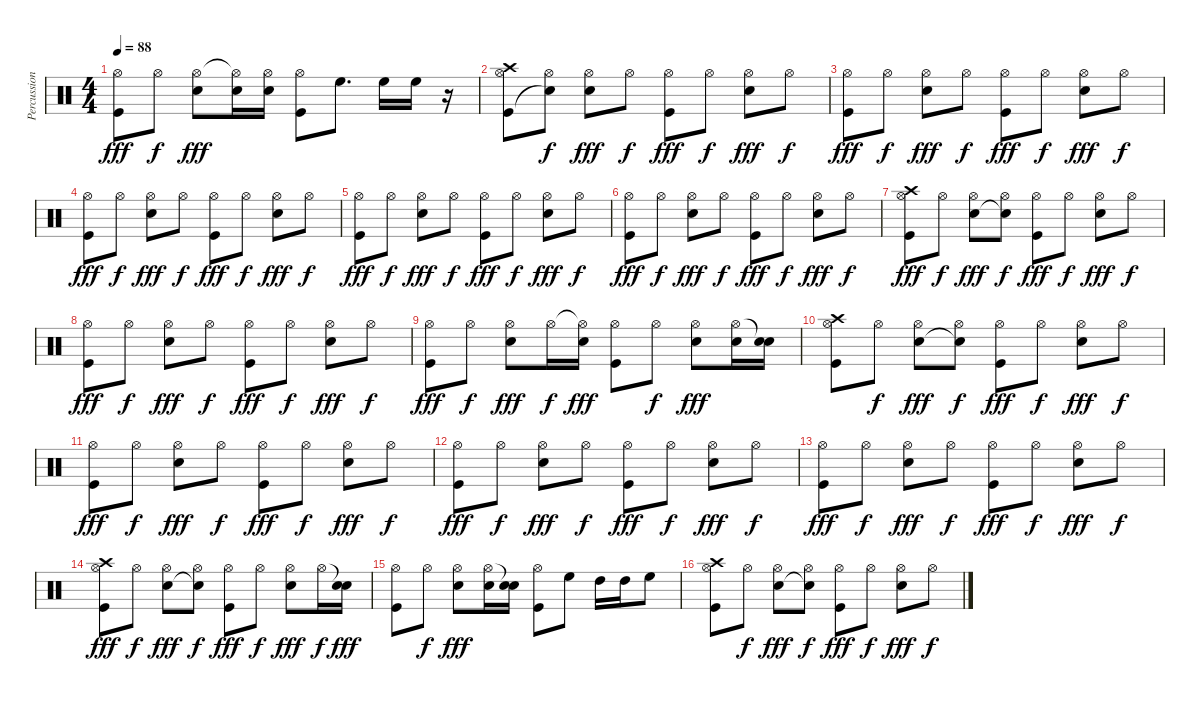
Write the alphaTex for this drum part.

\track ("Percussions" "Percussion") {instrument percussion}
\staff {score}
\articulation defaults
\ts (4 4)
\tempo 88
\clef neutral
\ks c
("Hi-Hat (open)" "Kick (hit)").8{dy fff} "Hi-Hat (open)".8{dy f} ("Hi-Hat (open)" "Snare (hit) 2").8{dy fff} ("Hi-Hat (open)"{t} "Snare (hit) 2").16 ("Hi-Hat (open)" "Snare (hit) 2").16 ("Hi-Hat (open)" "Kick (hit)").8 "High Floor Tom (hit)".8{d} "High Floor Tom (hit)".16 "High Floor Tom (hit)".16 r.16 |
("Hi-Hat (open)" "Kick (hit)" "Crash high (hit)").8 ("Hi-Hat (open)" "Snare (hit)"{t}).8{dy f} ("Hi-Hat (open)" "Snare (hit) 2").8{dy fff} "Hi-Hat (open)".8{dy f} ("Hi-Hat (open)" "Kick (hit)").8{dy fff} "Hi-Hat (open)".8{dy f} ("Hi-Hat (open)" "Snare (hit) 2").8{dy fff} "Hi-Hat (open)".8{dy f} |
("Hi-Hat (open)" "Kick (hit)").8{dy fff} "Hi-Hat (open)".8{dy f} ("Hi-Hat (open)" "Snare (hit) 2").8{dy fff} "Hi-Hat (open)".8{dy f} ("Hi-Hat (open)" "Kick (hit)").8{dy fff} "Hi-Hat (open)".8{dy f} ("Hi-Hat (open)" "Snare (hit) 2").8{dy fff} "Hi-Hat (open)".8{dy f} |
("Hi-Hat (open)" "Kick (hit)").8{dy fff} "Hi-Hat (open)".8{dy f} ("Hi-Hat (open)" "Snare (hit) 2").8{dy fff} "Hi-Hat (open)".8{dy f} ("Hi-Hat (open)" "Kick (hit)").8{dy fff} "Hi-Hat (open)".8{dy f} ("Hi-Hat (open)" "Snare (hit) 2").8{dy fff} "Hi-Hat (open)".8{dy f} |
("Hi-Hat (open)" "Kick (hit)").8{dy fff} "Hi-Hat (open)".8{dy f} ("Hi-Hat (open)" "Snare (hit) 2").8{dy fff} "Hi-Hat (open)".8{dy f} ("Hi-Hat (open)" "Kick (hit)").8{dy fff} "Hi-Hat (open)".8{dy f} ("Hi-Hat (open)" "Snare (hit) 2").8{dy fff} "Hi-Hat (open)".8{dy f} |
("Hi-Hat (open)" "Kick (hit)").8{dy fff} "Hi-Hat (open)".8{dy f} ("Hi-Hat (open)" "Snare (hit) 2").8{dy fff} "Hi-Hat (open)".8{dy f} ("Hi-Hat (open)" "Kick (hit)").8{dy fff} "Hi-Hat (open)".8{dy f} ("Hi-Hat (open)" "Snare (hit) 2").8{dy fff} "Hi-Hat (open)".8{dy f} |
("Hi-Hat (open)" "Kick (hit)" "Crash high (hit)").8{dy fff} "Hi-Hat (open)".8{dy f} ("Hi-Hat (open)" "Snare (hit) 2").8{dy fff} ("Hi-Hat (open)" "Snare (hit)"{t}).8{dy f} ("Hi-Hat (open)" "Kick (hit)").8{dy fff} "Hi-Hat (open)".8{dy f} ("Hi-Hat (open)" "Snare (hit) 2").8{dy fff} "Hi-Hat (open)".8{dy f} |
("Hi-Hat (open)" "Kick (hit)").8{dy fff} "Hi-Hat (open)".8{dy f} ("Hi-Hat (open)" "Snare (hit) 2").8{dy fff} "Hi-Hat (open)".8{dy f} ("Hi-Hat (open)" "Kick (hit)").8{dy fff} "Hi-Hat (open)".8{dy f} ("Hi-Hat (open)" "Snare (hit) 2").8{dy fff} "Hi-Hat (open)".8{dy f} |
("Hi-Hat (open)" "Kick (hit)").8{dy fff} "Hi-Hat (open)".8{dy f} ("Hi-Hat (open)" "Snare (hit) 2").8{dy fff} "Hi-Hat (open)".16{dy f} ("Hi-Hat (open)"{t} "Snare (hit) 2").16{dy fff} ("Hi-Hat (open)" "Kick (hit)").8 "Hi-Hat (open)".8{dy f} ("Hi-Hat (open)" "Snare (hit) 2").8{dy fff} ("Hi-Hat (open)" "Snare (hit) 2").16 ("Snare (hit)"{t} "Snare (hit) 2").16 |
("Hi-Hat (open)" "Kick (hit)" "Crash high (hit)").8 "Hi-Hat (open)".8{dy f} ("Hi-Hat (open)" "Snare (hit) 2").8{dy fff} ("Hi-Hat (open)" "Snare (hit)"{t}).8{dy f} ("Hi-Hat (open)" "Kick (hit)").8{dy fff} "Hi-Hat (open)".8{dy f} ("Hi-Hat (open)" "Snare (hit) 2").8{dy fff} "Hi-Hat (open)".8{dy f} |
("Hi-Hat (open)" "Kick (hit)").8{dy fff} "Hi-Hat (open)".8{dy f} ("Hi-Hat (open)" "Snare (hit) 2").8{dy fff} "Hi-Hat (open)".8{dy f} ("Hi-Hat (open)" "Kick (hit)").8{dy fff} "Hi-Hat (open)".8{dy f} ("Hi-Hat (open)" "Snare (hit) 2").8{dy fff} "Hi-Hat (open)".8{dy f} |
("Hi-Hat (open)" "Kick (hit)").8{dy fff} "Hi-Hat (open)".8{dy f} ("Hi-Hat (open)" "Snare (hit) 2").8{dy fff} "Hi-Hat (open)".8{dy f} ("Hi-Hat (open)" "Kick (hit)").8{dy fff} "Hi-Hat (open)".8{dy f} ("Hi-Hat (open)" "Snare (hit) 2").8{dy fff} "Hi-Hat (open)".8{dy f} |
("Hi-Hat (open)" "Kick (hit)").8{dy fff} "Hi-Hat (open)".8{dy f} ("Hi-Hat (open)" "Snare (hit) 2").8{dy fff} "Hi-Hat (open)".8{dy f} ("Hi-Hat (open)" "Kick (hit)").8{dy fff} "Hi-Hat (open)".8{dy f} ("Hi-Hat (open)" "Snare (hit) 2").8{dy fff} "Hi-Hat (open)".8{dy f} |
("Hi-Hat (open)" "Kick (hit)" "Crash high (hit)").8{dy fff} "Hi-Hat (open)".8{dy f} ("Hi-Hat (open)" "Snare (hit) 2").8{dy fff} ("Hi-Hat (open)" "Snare (hit)"{t}).8{dy f} ("Hi-Hat (open)" "Kick (hit)").8{dy fff} "Hi-Hat (open)".8{dy f} ("Hi-Hat (open)" "Snare (hit) 2").8{dy fff} "Hi-Hat (open)".16{dy f} ("Snare (hit)"{t} "Snare (hit) 2").16{dy fff} |
("Hi-Hat (open)" "Kick (hit)").8 "Hi-Hat (open)".8{dy f} ("Hi-Hat (open)" "Snare (hit) 2").8{dy fff} ("Hi-Hat (open)" "Snare (hit) 2").16 ("Snare (hit)"{t} "Snare (hit) 2").16 ("Hi-Hat (open)" "Kick (hit)").8 "High Floor Tom (hit)".8 "High Tom (hit)".16 "High Tom (hit)".16 "High Floor Tom (hit)".8 |
("Hi-Hat (open)" "Kick (hit)" "Crash high (hit)").8 "Hi-Hat (open)".8{dy f} ("Hi-Hat (open)" "Snare (hit) 2").8{dy fff} ("Hi-Hat (open)" "Snare (hit)"{t}).8{dy f} ("Hi-Hat (open)" "Kick (hit)").8{dy fff} "Hi-Hat (open)".8{dy f} ("Hi-Hat (open)" "Snare (hit) 2").8{dy fff} "Hi-Hat (open)".8{dy f}
